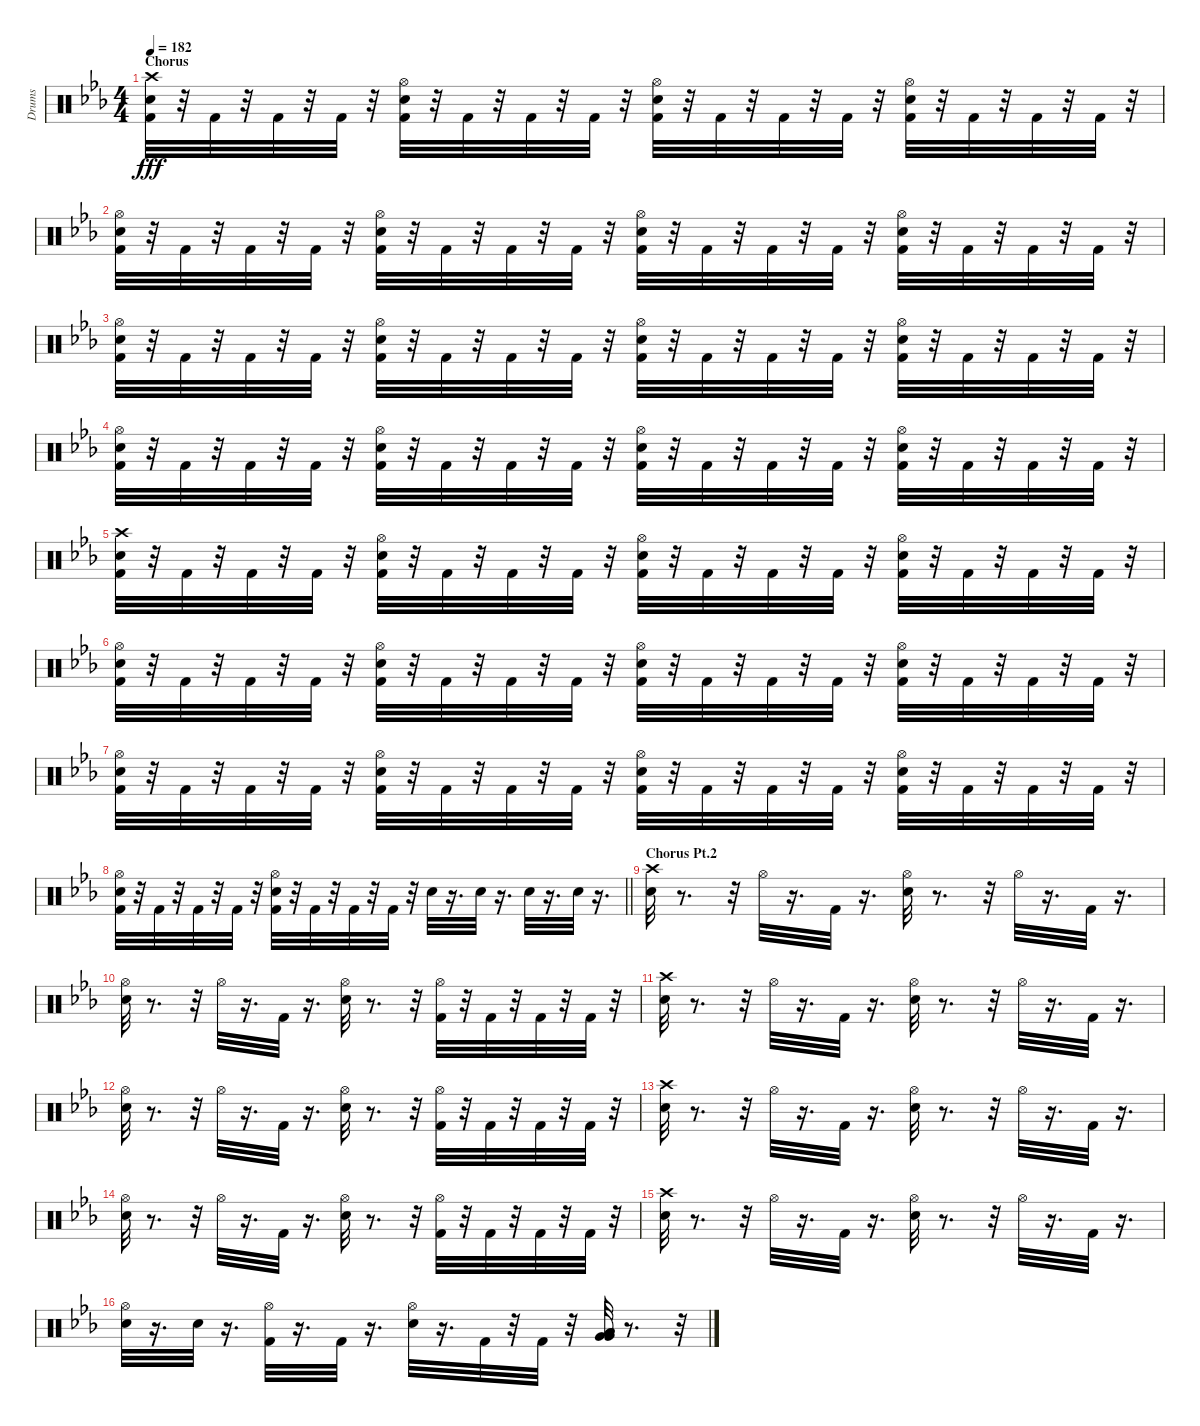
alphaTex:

\track ("Drums" "Drums") {instrument percussion}
\staff {score}
\articulation defaults
\ts (4 4)
\section ("" "Chorus")
\tempo 182
\clef neutral
\ks cminor
("Crash high (hit)" "Snare (hit) 2" "Kick (hit) 2").32{dy fff} r.32 "Kick (hit) 2".32 r.32 "Kick (hit) 2".32 r.32 "Kick (hit) 2".32 r.32 ("Hi-Hat (open)" "Snare (hit) 2" "Kick (hit) 2").32 r.32 "Kick (hit) 2".32 r.32 "Kick (hit) 2".32 r.32 "Kick (hit) 2".32 r.32 ("Hi-Hat (open)" "Snare (hit) 2" "Kick (hit) 2").32 r.32 "Kick (hit) 2".32 r.32 "Kick (hit) 2".32 r.32 "Kick (hit) 2".32 r.32 ("Hi-Hat (open)" "Snare (hit) 2" "Kick (hit) 2").32 r.32 "Kick (hit) 2".32 r.32 "Kick (hit) 2".32 r.32 "Kick (hit) 2".32 r.32 |
("Hi-Hat (open)" "Snare (hit) 2" "Kick (hit) 2").32 r.32 "Kick (hit) 2".32 r.32 "Kick (hit) 2".32 r.32 "Kick (hit) 2".32 r.32 ("Hi-Hat (open)" "Snare (hit) 2" "Kick (hit) 2").32 r.32 "Kick (hit) 2".32 r.32 "Kick (hit) 2".32 r.32 "Kick (hit) 2".32 r.32 ("Hi-Hat (open)" "Snare (hit) 2" "Kick (hit) 2").32 r.32 "Kick (hit) 2".32 r.32 "Kick (hit) 2".32 r.32 "Kick (hit) 2".32 r.32 ("Hi-Hat (open)" "Snare (hit) 2" "Kick (hit) 2").32 r.32 "Kick (hit) 2".32 r.32 "Kick (hit) 2".32 r.32 "Kick (hit) 2".32 r.32 |
("Hi-Hat (open)" "Snare (hit) 2" "Kick (hit) 2").32 r.32 "Kick (hit) 2".32 r.32 "Kick (hit) 2".32 r.32 "Kick (hit) 2".32 r.32 ("Hi-Hat (open)" "Snare (hit) 2" "Kick (hit) 2").32 r.32 "Kick (hit) 2".32 r.32 "Kick (hit) 2".32 r.32 "Kick (hit) 2".32 r.32 ("Hi-Hat (open)" "Snare (hit) 2" "Kick (hit) 2").32 r.32 "Kick (hit) 2".32 r.32 "Kick (hit) 2".32 r.32 "Kick (hit) 2".32 r.32 ("Hi-Hat (open)" "Snare (hit) 2" "Kick (hit) 2").32 r.32 "Kick (hit) 2".32 r.32 "Kick (hit) 2".32 r.32 "Kick (hit) 2".32 r.32 |
("Hi-Hat (open)" "Snare (hit) 2" "Kick (hit) 2").32 r.32 "Kick (hit) 2".32 r.32 "Kick (hit) 2".32 r.32 "Kick (hit) 2".32 r.32 ("Hi-Hat (open)" "Snare (hit) 2" "Kick (hit) 2").32 r.32 "Kick (hit) 2".32 r.32 "Kick (hit) 2".32 r.32 "Kick (hit) 2".32 r.32 ("Hi-Hat (open)" "Snare (hit) 2" "Kick (hit) 2").32 r.32 "Kick (hit) 2".32 r.32 "Kick (hit) 2".32 r.32 "Kick (hit) 2".32 r.32 ("Hi-Hat (open)" "Snare (hit) 2" "Kick (hit) 2").32 r.32 "Kick (hit) 2".32 r.32 "Kick (hit) 2".32 r.32 "Kick (hit) 2".32 r.32 |
("Crash high (hit)" "Snare (hit) 2" "Kick (hit) 2").32 r.32 "Kick (hit) 2".32 r.32 "Kick (hit) 2".32 r.32 "Kick (hit) 2".32 r.32 ("Hi-Hat (open)" "Snare (hit) 2" "Kick (hit) 2").32 r.32 "Kick (hit) 2".32 r.32 "Kick (hit) 2".32 r.32 "Kick (hit) 2".32 r.32 ("Hi-Hat (open)" "Snare (hit) 2" "Kick (hit) 2").32 r.32 "Kick (hit) 2".32 r.32 "Kick (hit) 2".32 r.32 "Kick (hit) 2".32 r.32 ("Hi-Hat (open)" "Snare (hit) 2" "Kick (hit) 2").32 r.32 "Kick (hit) 2".32 r.32 "Kick (hit) 2".32 r.32 "Kick (hit) 2".32 r.32 |
("Hi-Hat (open)" "Snare (hit) 2" "Kick (hit) 2").32 r.32 "Kick (hit) 2".32 r.32 "Kick (hit) 2".32 r.32 "Kick (hit) 2".32 r.32 ("Hi-Hat (open)" "Snare (hit) 2" "Kick (hit) 2").32 r.32 "Kick (hit) 2".32 r.32 "Kick (hit) 2".32 r.32 "Kick (hit) 2".32 r.32 ("Hi-Hat (open)" "Snare (hit) 2" "Kick (hit) 2").32 r.32 "Kick (hit) 2".32 r.32 "Kick (hit) 2".32 r.32 "Kick (hit) 2".32 r.32 ("Hi-Hat (open)" "Snare (hit) 2" "Kick (hit) 2").32 r.32 "Kick (hit) 2".32 r.32 "Kick (hit) 2".32 r.32 "Kick (hit) 2".32 r.32 |
("Hi-Hat (open)" "Snare (hit) 2" "Kick (hit) 2").32 r.32 "Kick (hit) 2".32 r.32 "Kick (hit) 2".32 r.32 "Kick (hit) 2".32 r.32 ("Hi-Hat (open)" "Snare (hit) 2" "Kick (hit) 2").32 r.32 "Kick (hit) 2".32 r.32 "Kick (hit) 2".32 r.32 "Kick (hit) 2".32 r.32 ("Hi-Hat (open)" "Snare (hit) 2" "Kick (hit) 2").32 r.32 "Kick (hit) 2".32 r.32 "Kick (hit) 2".32 r.32 "Kick (hit) 2".32 r.32 ("Hi-Hat (open)" "Snare (hit) 2" "Kick (hit) 2").32 r.32 "Kick (hit) 2".32 r.32 "Kick (hit) 2".32 r.32 "Kick (hit) 2".32 r.32 |
\barLineRight lightlight
("Hi-Hat (open)" "Snare (hit) 2" "Kick (hit) 2").32 r.32 "Kick (hit) 2".32 r.32 "Kick (hit) 2".32 r.32 "Kick (hit) 2".32 r.32 ("Hi-Hat (open)" "Snare (hit) 2" "Kick (hit) 2").32 r.32 "Kick (hit) 2".32 r.32 "Kick (hit) 2".32 r.32 "Kick (hit) 2".32 r.32 "Snare (hit) 2".32 r.16{d} "Snare (hit) 2".32 r.16{d} "Snare (hit) 2".32 r.16{d} "Snare (hit) 2".32 r.16{d} |
\section ("" "Chorus Pt.2")
("Snare (hit) 2" "Crash high (hit)").32 r.8{d} r.32 "Hi-Hat (open)".32 r.16{d} "Kick (hit) 2".32 r.16{d} ("Hi-Hat (open)" "Snare (hit) 2").32 r.8{d} r.32 "Hi-Hat (open)".32 r.16{d} "Kick (hit) 2".32 r.16{d} |
("Snare (hit) 2" "Hi-Hat (open)").32 r.8{d} r.32 "Hi-Hat (open)".32 r.16{d} "Kick (hit) 2".32 r.16{d} ("Snare (hit) 2" "Hi-Hat (open)").32 r.8{d} r.32 ("Kick (hit) 2" "Hi-Hat (open)").32 r.32 "Kick (hit) 2".32 r.32 "Kick (hit) 2".32 r.32 "Kick (hit) 2".32 r.32 |
("Snare (hit) 2" "Crash high (hit)").32 r.8{d} r.32 "Hi-Hat (open)".32 r.16{d} "Kick (hit) 2".32 r.16{d} ("Hi-Hat (open)" "Snare (hit) 2").32 r.8{d} r.32 "Hi-Hat (open)".32 r.16{d} "Kick (hit) 2".32 r.16{d} |
("Snare (hit) 2" "Hi-Hat (open)").32 r.8{d} r.32 "Hi-Hat (open)".32 r.16{d} "Kick (hit) 2".32 r.16{d} ("Snare (hit) 2" "Hi-Hat (open)").32 r.8{d} r.32 ("Kick (hit) 2" "Hi-Hat (open)").32 r.32 "Kick (hit) 2".32 r.32 "Kick (hit) 2".32 r.32 "Kick (hit) 2".32 r.32 |
("Snare (hit) 2" "Crash high (hit)").32 r.8{d} r.32 "Hi-Hat (open)".32 r.16{d} "Kick (hit) 2".32 r.16{d} ("Hi-Hat (open)" "Snare (hit) 2").32 r.8{d} r.32 "Hi-Hat (open)".32 r.16{d} "Kick (hit) 2".32 r.16{d} |
("Snare (hit) 2" "Hi-Hat (open)").32 r.8{d} r.32 "Hi-Hat (open)".32 r.16{d} "Kick (hit) 2".32 r.16{d} ("Snare (hit) 2" "Hi-Hat (open)").32 r.8{d} r.32 ("Kick (hit) 2" "Hi-Hat (open)").32 r.32 "Kick (hit) 2".32 r.32 "Kick (hit) 2".32 r.32 "Kick (hit) 2".32 r.32 |
("Snare (hit) 2" "Crash high (hit)").32 r.8{d} r.32 "Hi-Hat (open)".32 r.16{d} "Kick (hit) 2".32 r.16{d} ("Hi-Hat (open)" "Snare (hit) 2").32 r.8{d} r.32 "Hi-Hat (open)".32 r.16{d} "Kick (hit) 2".32 r.16{d} |
("Snare (hit) 2" "Hi-Hat (open)").32 r.16{d} "Snare (hit) 2".32 r.16{d} ("Kick (hit) 2" "Hi-Hat (open)").32 r.16{d} "Kick (hit) 2".32 r.16{d} ("Snare (hit) 2" "Hi-Hat (open)").32 r.16{d} "Kick (hit) 2".32 r.32 "Kick (hit) 2".32 r.32 ("Low Floor Tom (hit)" "Very Low Tom (hit)" "Very Low Tom (hit)" "Low Floor Tom (hit)").32 r.8{d} r.32
